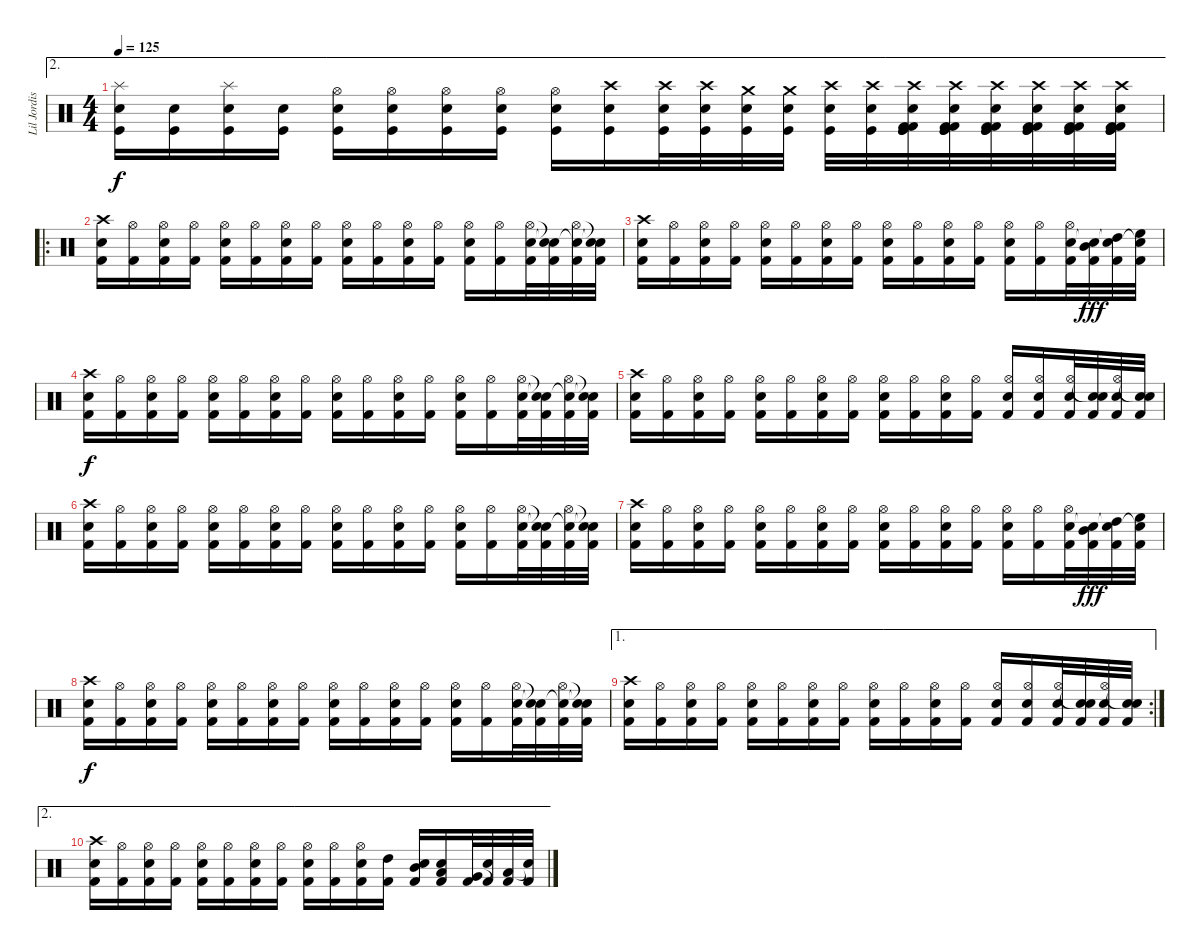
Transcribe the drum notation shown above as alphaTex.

\track ("Lil Jordison" "Lil Jordis") {instrument percussion}
\staff {score}
\articulation defaults
\ae 2
\ts (4 4)
\tempo 125
\clef neutral
\ks c
("Splash (hit)" "Kick (hit)" "Electric Snare (hit)").16{dy f} ("Kick (hit)" "Electric Snare (hit)").16 ("Splash (hit)" "Kick (hit)" "Electric Snare (hit)").16 ("Kick (hit)" "Electric Snare (hit)").16 ("Hi-Hat (open)" "Kick (hit)" "Electric Snare (hit)").16 ("Hi-Hat (open)" "Kick (hit)" "Electric Snare (hit)").16 ("Hi-Hat (open)" "Kick (hit)" "Electric Snare (hit)").16 ("Hi-Hat (open)" "Kick (hit)" "Electric Snare (hit)").16 ("Hi-Hat (open)" "Kick (hit)" "Electric Snare (hit)").16 ("Crash high (hit)" "Kick (hit)" "Electric Snare (hit)").16 ("Crash high (hit)" "Kick (hit)" "Electric Snare (hit)").32 ("Crash high (hit)" "Kick (hit)" "Electric Snare (hit)").32 ("Crash medium (hit)" "Kick (hit)" "Electric Snare (hit)").32 ("Crash medium (hit)" "Kick (hit)" "Electric Snare (hit)").32 ("Crash high (hit)" "Kick (hit)" "Electric Snare (hit)").32 ("Crash high (hit)" "Kick (hit)" "Electric Snare (hit)").32 ("Crash high (hit)" "Kick (hit) 2" "Kick (hit)" "Kick (hit) 2" "Kick (hit)" "Electric Snare (hit)").32 ("Crash high (hit)" "Kick (hit) 2" "Kick (hit)" "Kick (hit) 2" "Kick (hit)" "Electric Snare (hit)").32 ("Crash high (hit)" "Kick (hit) 2" "Kick (hit)" "Kick (hit) 2" "Kick (hit)" "Electric Snare (hit)").32 ("Crash high (hit)" "Kick (hit) 2" "Kick (hit)" "Kick (hit) 2" "Kick (hit)" "Electric Snare (hit)").32 ("Crash high (hit)" "Kick (hit) 2" "Kick (hit)" "Kick (hit) 2" "Kick (hit)" "Electric Snare (hit)").32 ("Crash high (hit)" "Kick (hit) 2" "Kick (hit)" "Kick (hit) 2" "Kick (hit)" "Electric Snare (hit)").32 |
\ro
("Crash high (hit)" "Electric Snare (hit)" "Kick (hit) 2").16 ("Hi-Hat (open)" "Kick (hit) 2").16 ("Hi-Hat (open)" "Electric Snare (hit)" "Kick (hit) 2").16 ("Hi-Hat (open)" "Kick (hit) 2").16 ("Hi-Hat (open)" "Electric Snare (hit)" "Kick (hit) 2").16 ("Hi-Hat (open)" "Kick (hit) 2").16 ("Hi-Hat (open)" "Electric Snare (hit)" "Kick (hit) 2").16 ("Hi-Hat (open)" "Kick (hit) 2").16 ("Hi-Hat (open)" "Electric Snare (hit)" "Kick (hit) 2").16 ("Hi-Hat (open)" "Kick (hit) 2").16 ("Hi-Hat (open)" "Electric Snare (hit)" "Kick (hit) 2").16 ("Hi-Hat (open)" "Kick (hit) 2").16 ("Hi-Hat (open)" "Electric Snare (hit)" "Kick (hit) 2").16 ("Hi-Hat (open)" "Kick (hit) 2").16 ("Hi-Hat (open)" "Electric Snare (hit)" "Kick (hit) 2").32 ("Snare (hit)"{t} "Snare (hit)"{t} "Kick (hit) 2").32 ("Hi-Hat (open)" "Snare (hit)"{t} "Kick (hit) 2").32 ("Snare (hit)"{t} "Snare (hit)"{t} "Kick (hit) 2").32 |
("Crash high (hit)" "Electric Snare (hit)" "Kick (hit) 2").16 ("Hi-Hat (open)" "Kick (hit) 2").16 ("Hi-Hat (open)" "Electric Snare (hit)" "Kick (hit) 2").16 ("Hi-Hat (open)" "Kick (hit) 2").16 ("Hi-Hat (open)" "Electric Snare (hit)" "Kick (hit) 2").16 ("Hi-Hat (open)" "Kick (hit) 2").16 ("Hi-Hat (open)" "Electric Snare (hit)" "Kick (hit) 2").16 ("Hi-Hat (open)" "Kick (hit) 2").16 ("Hi-Hat (open)" "Electric Snare (hit)" "Kick (hit) 2").16 ("Hi-Hat (open)" "Kick (hit) 2").16 ("Hi-Hat (open)" "Electric Snare (hit)" "Kick (hit) 2").16 ("Hi-Hat (open)" "Kick (hit) 2").16 ("Hi-Hat (open)" "Electric Snare (hit)" "Kick (hit) 2").16 ("Hi-Hat (open)" "Kick (hit) 2").16 ("Hi-Hat (open)" "Electric Snare (hit)" "Kick (hit) 2").32 ("Mid Tom (hit)" "Snare (hit)"{t} "Kick (hit) 2").32{dy fff} ("High Tom (hit)" "Snare (hit)"{t} "Kick (hit) 2").32 ("High Floor Tom (hit)" "Snare (hit)"{t} "Kick (hit) 2").32 |
("Crash high (hit)" "Electric Snare (hit)" "Kick (hit) 2").16{dy f} ("Hi-Hat (open)" "Kick (hit) 2").16 ("Hi-Hat (open)" "Electric Snare (hit)" "Kick (hit) 2").16 ("Hi-Hat (open)" "Kick (hit) 2").16 ("Hi-Hat (open)" "Electric Snare (hit)" "Kick (hit) 2").16 ("Hi-Hat (open)" "Kick (hit) 2").16 ("Hi-Hat (open)" "Electric Snare (hit)" "Kick (hit) 2").16 ("Hi-Hat (open)" "Kick (hit) 2").16 ("Hi-Hat (open)" "Electric Snare (hit)" "Kick (hit) 2").16 ("Hi-Hat (open)" "Kick (hit) 2").16 ("Hi-Hat (open)" "Electric Snare (hit)" "Kick (hit) 2").16 ("Hi-Hat (open)" "Kick (hit) 2").16 ("Hi-Hat (open)" "Electric Snare (hit)" "Kick (hit) 2").16 ("Hi-Hat (open)" "Kick (hit) 2").16 ("Hi-Hat (open)" "Electric Snare (hit)" "Kick (hit) 2").32 ("Snare (hit)"{t} "Snare (hit)"{t} "Kick (hit) 2").32 ("Hi-Hat (open)" "Snare (hit)"{t} "Kick (hit) 2").32 ("Snare (hit)"{t} "Snare (hit)"{t} "Kick (hit) 2").32 |
("Crash high (hit)" "Electric Snare (hit)" "Kick (hit) 2").16 ("Hi-Hat (open)" "Kick (hit) 2").16 ("Hi-Hat (open)" "Electric Snare (hit)" "Kick (hit) 2").16 ("Hi-Hat (open)" "Kick (hit) 2").16 ("Hi-Hat (open)" "Electric Snare (hit)" "Kick (hit) 2").16 ("Hi-Hat (open)" "Kick (hit) 2").16 ("Hi-Hat (open)" "Electric Snare (hit)" "Kick (hit) 2").16 ("Hi-Hat (open)" "Kick (hit) 2").16 ("Hi-Hat (open)" "Electric Snare (hit)" "Kick (hit) 2").16 ("Hi-Hat (open)" "Kick (hit) 2").16 ("Hi-Hat (open)" "Electric Snare (hit)" "Kick (hit) 2").16 ("Hi-Hat (open)" "Kick (hit) 2").16 ("Hi-Hat (open)" "Electric Snare (hit)" "Kick (hit) 2").16 ("Hi-Hat (open)" "Electric Snare (hit)" "Kick (hit) 2").16 ("Hi-Hat (open)" "Electric Snare (hit)" "Kick (hit) 2").32 ("Snare (hit)"{t} "Electric Snare (hit)" "Kick (hit) 2").32 ("Hi-Hat (open)" "Electric Snare (hit)" "Kick (hit) 2").32 ("Snare (hit)"{t} "Electric Snare (hit)" "Kick (hit) 2").32 |
("Crash high (hit)" "Electric Snare (hit)" "Kick (hit) 2").16 ("Hi-Hat (open)" "Kick (hit) 2").16 ("Hi-Hat (open)" "Electric Snare (hit)" "Kick (hit) 2").16 ("Hi-Hat (open)" "Kick (hit) 2").16 ("Hi-Hat (open)" "Electric Snare (hit)" "Kick (hit) 2").16 ("Hi-Hat (open)" "Kick (hit) 2").16 ("Hi-Hat (open)" "Electric Snare (hit)" "Kick (hit) 2").16 ("Hi-Hat (open)" "Kick (hit) 2").16 ("Hi-Hat (open)" "Electric Snare (hit)" "Kick (hit) 2").16 ("Hi-Hat (open)" "Kick (hit) 2").16 ("Hi-Hat (open)" "Electric Snare (hit)" "Kick (hit) 2").16 ("Hi-Hat (open)" "Kick (hit) 2").16 ("Hi-Hat (open)" "Electric Snare (hit)" "Kick (hit) 2").16 ("Hi-Hat (open)" "Kick (hit) 2").16 ("Hi-Hat (open)" "Electric Snare (hit)" "Kick (hit) 2").32 ("Snare (hit)"{t} "Snare (hit)"{t} "Kick (hit) 2").32 ("Hi-Hat (open)" "Snare (hit)"{t} "Kick (hit) 2").32 ("Snare (hit)"{t} "Snare (hit)"{t} "Kick (hit) 2").32 |
("Crash high (hit)" "Electric Snare (hit)" "Kick (hit) 2").16 ("Hi-Hat (open)" "Kick (hit) 2").16 ("Hi-Hat (open)" "Electric Snare (hit)" "Kick (hit) 2").16 ("Hi-Hat (open)" "Kick (hit) 2").16 ("Hi-Hat (open)" "Electric Snare (hit)" "Kick (hit) 2").16 ("Hi-Hat (open)" "Kick (hit) 2").16 ("Hi-Hat (open)" "Electric Snare (hit)" "Kick (hit) 2").16 ("Hi-Hat (open)" "Kick (hit) 2").16 ("Hi-Hat (open)" "Electric Snare (hit)" "Kick (hit) 2").16 ("Hi-Hat (open)" "Kick (hit) 2").16 ("Hi-Hat (open)" "Electric Snare (hit)" "Kick (hit) 2").16 ("Hi-Hat (open)" "Kick (hit) 2").16 ("Hi-Hat (open)" "Electric Snare (hit)" "Kick (hit) 2").16 ("Hi-Hat (open)" "Kick (hit) 2").16 ("Hi-Hat (open)" "Electric Snare (hit)" "Kick (hit) 2").32 ("Mid Tom (hit)" "Snare (hit)"{t} "Kick (hit) 2").32{dy fff} ("High Tom (hit)" "Snare (hit)"{t} "Kick (hit) 2").32 ("High Floor Tom (hit)" "Snare (hit)"{t} "Kick (hit) 2").32 |
("Crash high (hit)" "Electric Snare (hit)" "Kick (hit) 2").16{dy f} ("Hi-Hat (open)" "Kick (hit) 2").16 ("Hi-Hat (open)" "Electric Snare (hit)" "Kick (hit) 2").16 ("Hi-Hat (open)" "Kick (hit) 2").16 ("Hi-Hat (open)" "Electric Snare (hit)" "Kick (hit) 2").16 ("Hi-Hat (open)" "Kick (hit) 2").16 ("Hi-Hat (open)" "Electric Snare (hit)" "Kick (hit) 2").16 ("Hi-Hat (open)" "Kick (hit) 2").16 ("Hi-Hat (open)" "Electric Snare (hit)" "Kick (hit) 2").16 ("Hi-Hat (open)" "Kick (hit) 2").16 ("Hi-Hat (open)" "Electric Snare (hit)" "Kick (hit) 2").16 ("Hi-Hat (open)" "Kick (hit) 2").16 ("Hi-Hat (open)" "Electric Snare (hit)" "Kick (hit) 2").16 ("Hi-Hat (open)" "Kick (hit) 2").16 ("Hi-Hat (open)" "Electric Snare (hit)" "Kick (hit) 2").32 ("Snare (hit)"{t} "Snare (hit)"{t} "Kick (hit) 2").32 ("Hi-Hat (open)" "Snare (hit)"{t} "Kick (hit) 2").32 ("Snare (hit)"{t} "Snare (hit)"{t} "Kick (hit) 2").32 |
\ae 1
\rc 2
("Crash high (hit)" "Electric Snare (hit)" "Kick (hit) 2").16 ("Hi-Hat (open)" "Kick (hit) 2").16 ("Hi-Hat (open)" "Electric Snare (hit)" "Kick (hit) 2").16 ("Hi-Hat (open)" "Kick (hit) 2").16 ("Hi-Hat (open)" "Electric Snare (hit)" "Kick (hit) 2").16 ("Hi-Hat (open)" "Kick (hit) 2").16 ("Hi-Hat (open)" "Electric Snare (hit)" "Kick (hit) 2").16 ("Hi-Hat (open)" "Kick (hit) 2").16 ("Hi-Hat (open)" "Electric Snare (hit)" "Kick (hit) 2").16 ("Hi-Hat (open)" "Kick (hit) 2").16 ("Hi-Hat (open)" "Electric Snare (hit)" "Kick (hit) 2").16 ("Hi-Hat (open)" "Kick (hit) 2").16 ("Hi-Hat (open)" "Electric Snare (hit)" "Kick (hit) 2").16 ("Hi-Hat (open)" "Electric Snare (hit)" "Kick (hit) 2").16 ("Hi-Hat (open)" "Electric Snare (hit)" "Kick (hit) 2").32 ("Snare (hit)"{t} "Electric Snare (hit)" "Kick (hit) 2").32 ("Hi-Hat (open)" "Electric Snare (hit)" "Kick (hit) 2").32 ("Snare (hit)"{t} "Electric Snare (hit)" "Kick (hit) 2").32 |
\ae 2
("Crash high (hit)" "Electric Snare (hit)" "Kick (hit) 2").16 ("Hi-Hat (open)" "Kick (hit) 2").16 ("Hi-Hat (open)" "Electric Snare (hit)" "Kick (hit) 2").16 ("Hi-Hat (open)" "Kick (hit) 2").16 ("Hi-Hat (open)" "Electric Snare (hit)" "Kick (hit) 2").16 ("Hi-Hat (open)" "Kick (hit) 2").16 ("Hi-Hat (open)" "Electric Snare (hit)" "Kick (hit) 2").16 ("Hi-Hat (open)" "Kick (hit) 2").16 ("Hi-Hat (open)" "Electric Snare (hit)" "Kick (hit) 2").16 ("Hi-Hat (open)" "Kick (hit) 2").16 ("Hi-Hat (open)" "Electric Snare (hit)" "Kick (hit) 2").16 ("High Tom (hit)" "Kick (hit) 2").16 ("Mid Tom (hit)" "Electric Snare (hit)" "Kick (hit) 2").16 ("Low Tom (hit)" "Electric Snare (hit)" "Kick (hit) 2").16 ("Very Low Tom (hit)" "Kick (hit) 2").32 ("Snare (hit)"{t} "Kick (hit) 2").32 ("Low Floor Tom (hit)" "Kick (hit) 2").32 ("Snare (hit)"{t} "Kick (hit) 2").32
